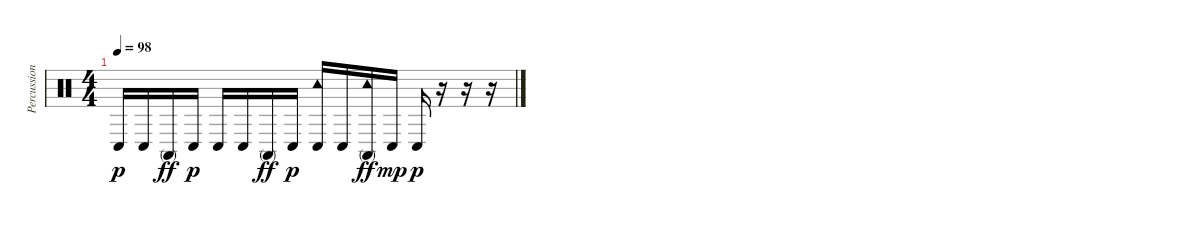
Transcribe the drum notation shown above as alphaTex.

\track ("Percussions" "Percussion") {instrument percussion}
\staff {score}
\articulation defaults
\ts (4 4)
\tempo 98
\clef neutral
\ks c "Conga low (hit)".16{dy p} "Conga low (hit)".16 "Conga high (mute)".16{dy ff} "Conga low (hit)".16{dy p} "Conga low (hit)".16 "Conga low (hit)".16 "Conga high (mute)".16{dy ff} "Conga low (hit)".16{dy p}
("Tambourine (hit)" "Conga low (hit)").16 "Conga low (hit)".16 ("Tambourine (hit)" "Conga high (mute)").16{dy ff} "Conga low (hit)".16{dy mp} "Conga low (hit)".16{dy p} r.16 r.16 r.16
